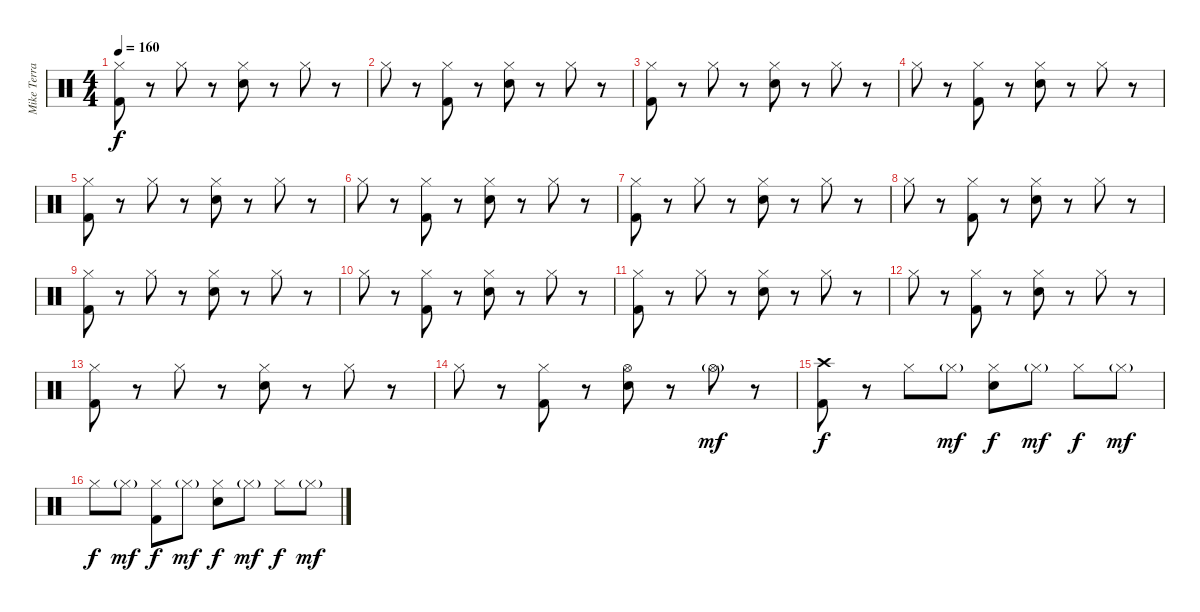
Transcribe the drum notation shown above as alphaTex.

\track ("Mike Terrana" "Mike Terra") {instrument percussion}
\staff {score}
\articulation defaults
\ts (4 4)
\tempo 160
\clef neutral
\ks c
("Hi-Hat (closed)" "Kick (hit) 2").8{dy f} r.8 "Hi-Hat (closed)".8 r.8 ("Hi-Hat (closed)" "Snare (hit) 2").8 r.8 "Hi-Hat (closed)".8 r.8 |
"Hi-Hat (closed)".8 r.8 ("Hi-Hat (closed)" "Kick (hit) 2").8 r.8 ("Hi-Hat (closed)" "Snare (hit) 2").8 r.8 "Hi-Hat (closed)".8 r.8 |
("Hi-Hat (closed)" "Kick (hit) 2").8 r.8 "Hi-Hat (closed)".8 r.8 ("Hi-Hat (closed)" "Snare (hit) 2").8 r.8 "Hi-Hat (closed)".8 r.8 |
"Hi-Hat (closed)".8 r.8 ("Hi-Hat (closed)" "Kick (hit) 2").8 r.8 ("Hi-Hat (closed)" "Snare (hit) 2").8 r.8 "Hi-Hat (closed)".8 r.8 |
("Hi-Hat (closed)" "Kick (hit) 2").8 r.8 "Hi-Hat (closed)".8 r.8 ("Hi-Hat (closed)" "Snare (hit) 2").8 r.8 "Hi-Hat (closed)".8 r.8 |
"Hi-Hat (closed)".8 r.8 ("Hi-Hat (closed)" "Kick (hit) 2").8 r.8 ("Hi-Hat (closed)" "Snare (hit) 2").8 r.8 "Hi-Hat (closed)".8 r.8 |
("Hi-Hat (closed)" "Kick (hit) 2").8 r.8 "Hi-Hat (closed)".8 r.8 ("Hi-Hat (closed)" "Snare (hit) 2").8 r.8 "Hi-Hat (closed)".8 r.8 |
"Hi-Hat (closed)".8 r.8 ("Hi-Hat (closed)" "Kick (hit) 2").8 r.8 ("Hi-Hat (closed)" "Snare (hit) 2").8 r.8 "Hi-Hat (closed)".8 r.8 |
("Hi-Hat (closed)" "Kick (hit) 2").8 r.8 "Hi-Hat (closed)".8 r.8 ("Hi-Hat (closed)" "Snare (hit) 2").8 r.8 "Hi-Hat (closed)".8 r.8 |
"Hi-Hat (closed)".8 r.8 ("Hi-Hat (closed)" "Kick (hit) 2").8 r.8 ("Hi-Hat (closed)" "Snare (hit) 2").8 r.8 "Hi-Hat (closed)".8 r.8 |
("Hi-Hat (closed)" "Kick (hit) 2").8 r.8 "Hi-Hat (closed)".8 r.8 ("Hi-Hat (closed)" "Snare (hit) 2").8 r.8 "Hi-Hat (closed)".8 r.8 |
"Hi-Hat (closed)".8 r.8 ("Hi-Hat (closed)" "Kick (hit) 2").8 r.8 ("Hi-Hat (closed)" "Snare (hit) 2").8 r.8 "Hi-Hat (closed)".8 r.8 |
("Hi-Hat (closed)" "Kick (hit) 2").8 r.8 "Hi-Hat (closed)".8 r.8 ("Hi-Hat (closed)" "Snare (hit) 2").8 r.8 "Hi-Hat (closed)".8 r.8 |
"Hi-Hat (closed)".8 r.8 ("Hi-Hat (closed)" "Kick (hit) 2").8 r.8 ("Hi-Hat (open)" "Snare (hit) 2").8 r.8 "Hi-Hat (open)"{g}.8{dy mf} r.8 |
("Crash high (hit)" "Kick (hit) 2").8{dy f} r.8 "Hi-Hat (closed)".8 "Hi-Hat (closed)"{g}.8{dy mf} ("Hi-Hat (closed)" "Snare (hit) 2").8{dy f} "Hi-Hat (closed)"{g}.8{dy mf} "Hi-Hat (closed)".8{dy f} "Hi-Hat (closed)"{g}.8{dy mf} |
"Hi-Hat (closed)".8{dy f} "Hi-Hat (closed)"{g}.8{dy mf} ("Hi-Hat (closed)" "Kick (hit) 2").8{dy f} "Hi-Hat (closed)"{g}.8{dy mf} ("Hi-Hat (closed)" "Snare (hit) 2").8{dy f} "Hi-Hat (closed)"{g}.8{dy mf} "Hi-Hat (closed)".8{dy f} "Hi-Hat (closed)"{g}.8{dy mf}
